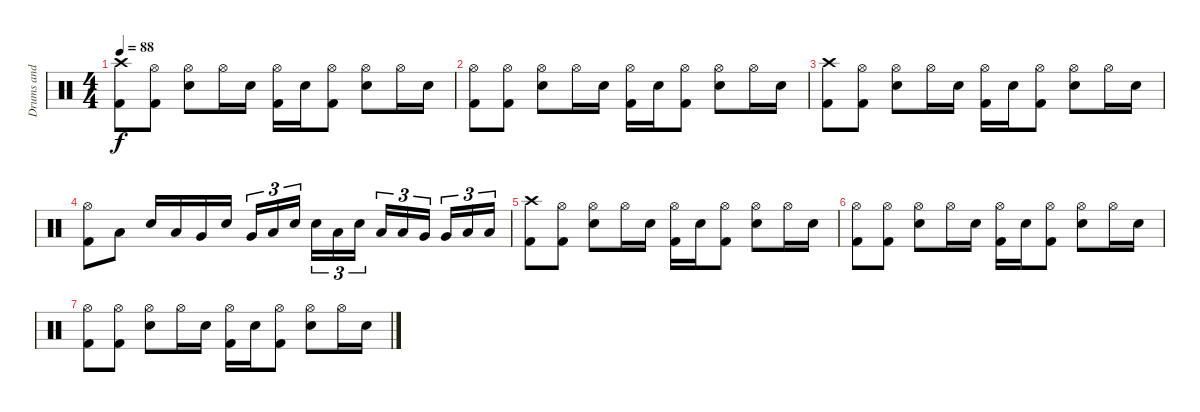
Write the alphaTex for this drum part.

\track ("Drums and Percussion" "Drums and ") {instrument percussion}
\staff {score}
\articulation defaults
\ts (4 4)
\tempo 88
\clef neutral
\ks c
("Crash high (hit)" "Kick (hit) 2").8{dy f} ("Hi-Hat (open)" "Kick (hit) 2").8 ("Hi-Hat (open)" "Snare (hit) 2").8 "Hi-Hat (open)".16 "Snare (hit) 2".16 ("Hi-Hat (open)" "Kick (hit) 2").16 "Snare (hit) 2".16 ("Hi-Hat (open)" "Kick (hit) 2").8 ("Hi-Hat (open)" "Snare (hit) 2").8 "Hi-Hat (open)".16 "Snare (hit) 2".16 |
("Hi-Hat (open)" "Kick (hit) 2").8 ("Hi-Hat (open)" "Kick (hit) 2").8 ("Hi-Hat (open)" "Snare (hit) 2").8 "Hi-Hat (open)".16 "Snare (hit) 2".16 ("Hi-Hat (open)" "Kick (hit) 2").16 "Snare (hit) 2".16 ("Hi-Hat (open)" "Kick (hit) 2").8 ("Hi-Hat (open)" "Snare (hit) 2").8 "Hi-Hat (open)".16 "Snare (hit) 2".16 |
("Crash high (hit)" "Kick (hit) 2").8 ("Hi-Hat (open)" "Kick (hit) 2").8 ("Hi-Hat (open)" "Snare (hit) 2").8 "Hi-Hat (open)".16 "Snare (hit) 2".16 ("Hi-Hat (open)" "Kick (hit) 2").16 "Snare (hit) 2".16 ("Hi-Hat (open)" "Kick (hit) 2").8 ("Hi-Hat (open)" "Snare (hit) 2").8 "Hi-Hat (open)".16 "Snare (hit) 2".16 |
("Hi-Hat (open)" "Kick (hit) 2").8 "Low Tom (hit)".8 "Snare (hit) 2".16 "Low Tom (hit)".16 "Very Low Tom (hit)".16 "Snare (hit) 2".16 "Very Low Tom (hit)".16{tu (3 2)} "Low Tom (hit)".16{tu (3 2)} "Snare (hit) 2".16{tu (3 2)} "Snare (hit) 2".16{tu (3 2)} "Low Tom (hit)".16{tu (3 2)} "Snare (hit) 2".16{tu (3 2)} "Low Tom (hit)".16{tu (3 2)} "Low Tom (hit)".16{tu (3 2)} "Very Low Tom (hit)".16{tu (3 2)} "Very Low Tom (hit)".16{tu (3 2)} "Low Floor Tom (hit)".16{tu (3 2)} "Low Floor Tom (hit)".16{tu (3 2)} |
("Crash high (hit)" "Kick (hit) 2").8{volume 0} ("Hi-Hat (open)" "Kick (hit) 2").8 ("Hi-Hat (open)" "Snare (hit) 2").8 "Hi-Hat (open)".16 "Snare (hit) 2".16 ("Hi-Hat (open)" "Kick (hit) 2").16 "Snare (hit) 2".16 ("Hi-Hat (open)" "Kick (hit) 2").8 ("Hi-Hat (open)" "Snare (hit) 2").8 "Hi-Hat (open)".16 "Snare (hit) 2".16 |
("Hi-Hat (open)" "Kick (hit) 2").8 ("Hi-Hat (open)" "Kick (hit) 2").8 ("Hi-Hat (open)" "Snare (hit) 2").8 "Hi-Hat (open)".16 "Snare (hit) 2".16 ("Hi-Hat (open)" "Kick (hit) 2").16 "Snare (hit) 2".16 ("Hi-Hat (open)" "Kick (hit) 2").8 ("Hi-Hat (open)" "Snare (hit) 2").8 "Hi-Hat (open)".16 "Snare (hit) 2".16 |
("Hi-Hat (open)" "Kick (hit) 2").8 ("Hi-Hat (open)" "Kick (hit) 2").8 ("Hi-Hat (open)" "Snare (hit) 2").8 "Hi-Hat (open)".16 "Snare (hit) 2".16 ("Hi-Hat (open)" "Kick (hit) 2").16 "Snare (hit) 2".16 ("Hi-Hat (open)" "Kick (hit) 2").8 ("Hi-Hat (open)" "Snare (hit) 2").8 "Hi-Hat (open)".16 "Snare (hit) 2".16
